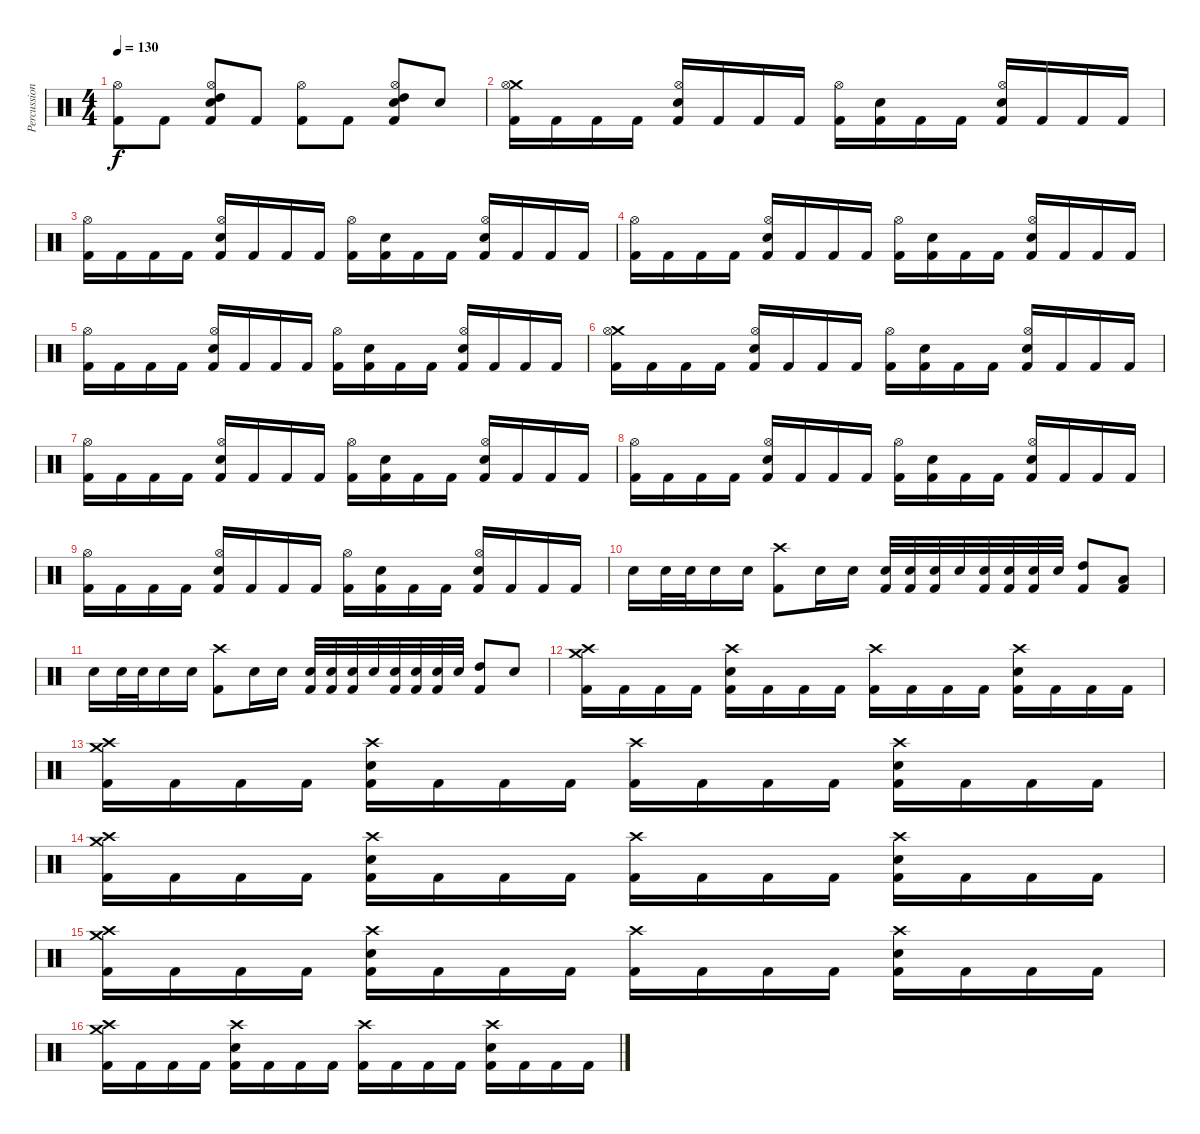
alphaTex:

\track ("Percussion" "Percussion") {instrument percussion}
\staff {score}
\articulation defaults
\ts (4 4)
\tempo 130
\clef neutral
\ks c
("Kick (hit) 2" "Hi-Hat (open)").8{dy f} "Kick (hit) 2".8 ("High Tom (hit)" "Snare (hit) 2" "Kick (hit) 2" "Hi-Hat (open)").8 "Kick (hit) 2".8 ("Kick (hit) 2" "Hi-Hat (open)").8 "Kick (hit) 2".8 ("Snare (hit) 2" "High Tom (hit)" "Kick (hit) 2" "Hi-Hat (open)").8 "Snare (hit)".8 |
("Crash medium (hit)" "Hi-Hat (open)" "Kick (hit) 2").16 "Kick (hit) 2".16 "Kick (hit) 2".16 "Kick (hit) 2".16 ("Snare (hit) 2" "Hi-Hat (open)" "Kick (hit) 2").16 "Kick (hit) 2".16 "Kick (hit) 2".16 "Kick (hit) 2".16 ("Hi-Hat (open)" "Kick (hit) 2").16 ("Snare (hit) 2" "Kick (hit) 2").16 "Kick (hit) 2".16 "Kick (hit) 2".16 ("Snare (hit) 2" "Hi-Hat (open)" "Kick (hit) 2").16 "Kick (hit) 2".16 "Kick (hit) 2".16 "Kick (hit) 2".16 |
("Hi-Hat (open)" "Kick (hit) 2").16 "Kick (hit) 2".16 "Kick (hit) 2".16 "Kick (hit) 2".16 ("Snare (hit) 2" "Hi-Hat (open)" "Kick (hit) 2").16 "Kick (hit) 2".16 "Kick (hit) 2".16 "Kick (hit) 2".16 ("Hi-Hat (open)" "Kick (hit) 2").16 ("Snare (hit) 2" "Kick (hit) 2").16 "Kick (hit) 2".16 "Kick (hit) 2".16 ("Snare (hit) 2" "Hi-Hat (open)" "Kick (hit) 2").16 "Kick (hit) 2".16 "Kick (hit) 2".16 "Kick (hit) 2".16 |
("Hi-Hat (open)" "Kick (hit) 2").16 "Kick (hit) 2".16 "Kick (hit) 2".16 "Kick (hit) 2".16 ("Snare (hit) 2" "Hi-Hat (open)" "Kick (hit) 2").16 "Kick (hit) 2".16 "Kick (hit) 2".16 "Kick (hit) 2".16 ("Hi-Hat (open)" "Kick (hit) 2").16 ("Snare (hit) 2" "Kick (hit) 2").16 "Kick (hit) 2".16 "Kick (hit) 2".16 ("Snare (hit) 2" "Hi-Hat (open)" "Kick (hit) 2").16 "Kick (hit) 2".16 "Kick (hit) 2".16 "Kick (hit) 2".16 |
("Hi-Hat (open)" "Kick (hit) 2").16 "Kick (hit) 2".16 "Kick (hit) 2".16 "Kick (hit) 2".16 ("Snare (hit) 2" "Hi-Hat (open)" "Kick (hit) 2").16 "Kick (hit) 2".16 "Kick (hit) 2".16 "Kick (hit) 2".16 ("Hi-Hat (open)" "Kick (hit) 2").16 ("Snare (hit) 2" "Kick (hit) 2").16 "Kick (hit) 2".16 "Kick (hit) 2".16 ("Snare (hit) 2" "Hi-Hat (open)" "Kick (hit) 2").16 "Kick (hit) 2".16 "Kick (hit) 2".16 "Kick (hit) 2".16 |
("Crash medium (hit)" "Hi-Hat (open)" "Kick (hit) 2").16 "Kick (hit) 2".16 "Kick (hit) 2".16 "Kick (hit) 2".16 ("Snare (hit) 2" "Hi-Hat (open)" "Kick (hit) 2").16 "Kick (hit) 2".16 "Kick (hit) 2".16 "Kick (hit) 2".16 ("Hi-Hat (open)" "Kick (hit) 2").16 ("Snare (hit) 2" "Kick (hit) 2").16 "Kick (hit) 2".16 "Kick (hit) 2".16 ("Snare (hit) 2" "Hi-Hat (open)" "Kick (hit) 2").16 "Kick (hit) 2".16 "Kick (hit) 2".16 "Kick (hit) 2".16 |
("Hi-Hat (open)" "Kick (hit) 2").16 "Kick (hit) 2".16 "Kick (hit) 2".16 "Kick (hit) 2".16 ("Snare (hit) 2" "Hi-Hat (open)" "Kick (hit) 2").16 "Kick (hit) 2".16 "Kick (hit) 2".16 "Kick (hit) 2".16 ("Hi-Hat (open)" "Kick (hit) 2").16 ("Snare (hit) 2" "Kick (hit) 2").16 "Kick (hit) 2".16 "Kick (hit) 2".16 ("Snare (hit) 2" "Hi-Hat (open)" "Kick (hit) 2").16 "Kick (hit) 2".16 "Kick (hit) 2".16 "Kick (hit) 2".16 |
("Hi-Hat (open)" "Kick (hit) 2").16 "Kick (hit) 2".16 "Kick (hit) 2".16 "Kick (hit) 2".16 ("Snare (hit) 2" "Hi-Hat (open)" "Kick (hit) 2").16 "Kick (hit) 2".16 "Kick (hit) 2".16 "Kick (hit) 2".16 ("Hi-Hat (open)" "Kick (hit) 2").16 ("Snare (hit) 2" "Kick (hit) 2").16 "Kick (hit) 2".16 "Kick (hit) 2".16 ("Snare (hit) 2" "Hi-Hat (open)" "Kick (hit) 2").16 "Kick (hit) 2".16 "Kick (hit) 2".16 "Kick (hit) 2".16 |
("Hi-Hat (open)" "Kick (hit) 2").16 "Kick (hit) 2".16 "Kick (hit) 2".16 "Kick (hit) 2".16 ("Snare (hit) 2" "Hi-Hat (open)" "Kick (hit) 2").16 "Kick (hit) 2".16 "Kick (hit) 2".16 "Kick (hit) 2".16 ("Hi-Hat (open)" "Kick (hit) 2").16 ("Snare (hit) 2" "Kick (hit) 2").16 "Kick (hit) 2".16 "Kick (hit) 2".16 ("Snare (hit) 2" "Hi-Hat (open)" "Kick (hit) 2").16 "Kick (hit) 2".16 "Kick (hit) 2".16 "Kick (hit) 2".16 |
"Snare (hit) 2".16 "Snare (hit) 2".32 "Snare (hit) 2".32 "Snare (hit) 2".16 "Snare (hit) 2".16 ("Crash high (hit)" "Kick (hit) 2").8 "Snare (hit) 2".16 "Snare (hit) 2".16 ("Snare (hit) 2" "Kick (hit) 2").32 ("Snare (hit) 2" "Kick (hit) 2").32 ("Snare (hit) 2" "Kick (hit) 2").32 "Snare (hit)".32 ("Snare (hit) 2" "Kick (hit) 2").32 ("Snare (hit) 2" "Kick (hit) 2").32 ("Snare (hit) 2" "Kick (hit) 2").32 "Snare (hit)".32 ("High Tom (hit)" "Kick (hit) 2").8 ("Low Tom (hit)" "Kick (hit) 2").8 |
"Snare (hit) 2".16 "Snare (hit) 2".32 "Snare (hit) 2".32 "Snare (hit) 2".16 "Snare (hit) 2".16 ("Crash high (hit)" "Kick (hit) 2").8 "Snare (hit) 2".16 "Snare (hit) 2".16 ("Snare (hit) 2" "Kick (hit) 2").32 ("Snare (hit) 2" "Kick (hit) 2").32 ("Snare (hit) 2" "Kick (hit) 2").32 "Snare (hit)".32 ("Snare (hit) 2" "Kick (hit) 2").32 ("Snare (hit) 2" "Kick (hit) 2").32 ("Snare (hit) 2" "Kick (hit) 2").32 "Snare (hit)".32 ("High Tom (hit)" "Kick (hit) 2").8 "Snare (hit)".8 |
("Crash medium (hit)" "Crash high (hit)" "Kick (hit) 2").16 "Kick (hit) 2".16 "Kick (hit) 2".16 "Kick (hit) 2".16 ("Crash high (hit)" "Snare (hit) 2" "Kick (hit) 2").16 "Kick (hit) 2".16 "Kick (hit) 2".16 "Kick (hit) 2".16 ("Crash high (hit)" "Kick (hit) 2").16 "Kick (hit) 2".16 "Kick (hit) 2".16 "Kick (hit) 2".16 ("Crash high (hit)" "Snare (hit) 2" "Kick (hit) 2").16 "Kick (hit) 2".16 "Kick (hit) 2".16 "Kick (hit) 2".16 |
("Crash high (hit)" "Crash medium (hit)" "Kick (hit) 2").16 "Kick (hit) 2".16 "Kick (hit) 2".16 "Kick (hit) 2".16 ("Crash high (hit)" "Snare (hit) 2" "Kick (hit) 2").16 "Kick (hit) 2".16 "Kick (hit) 2".16 "Kick (hit) 2".16 ("Crash high (hit)" "Kick (hit) 2").16 "Kick (hit) 2".16 "Kick (hit) 2".16 "Kick (hit) 2".16 ("Crash high (hit)" "Snare (hit) 2" "Kick (hit) 2").16 "Kick (hit) 2".16 "Kick (hit) 2".16 "Kick (hit) 2".16 |
("Crash medium (hit)" "Crash high (hit)" "Kick (hit) 2").16 "Kick (hit) 2".16 "Kick (hit) 2".16 "Kick (hit) 2".16 ("Crash high (hit)" "Snare (hit) 2" "Kick (hit) 2").16 "Kick (hit) 2".16 "Kick (hit) 2".16 "Kick (hit) 2".16 ("Crash high (hit)" "Kick (hit) 2").16 "Kick (hit) 2".16 "Kick (hit) 2".16 "Kick (hit) 2".16 ("Crash high (hit)" "Snare (hit) 2" "Kick (hit) 2").16 "Kick (hit) 2".16 "Kick (hit) 2".16 "Kick (hit) 2".16 |
("Crash high (hit)" "Crash medium (hit)" "Kick (hit) 2").16 "Kick (hit) 2".16 "Kick (hit) 2".16 "Kick (hit) 2".16 ("Crash high (hit)" "Snare (hit) 2" "Kick (hit) 2").16 "Kick (hit) 2".16 "Kick (hit) 2".16 "Kick (hit) 2".16 ("Crash high (hit)" "Kick (hit) 2").16 "Kick (hit) 2".16 "Kick (hit) 2".16 "Kick (hit) 2".16 ("Crash high (hit)" "Snare (hit) 2" "Kick (hit) 2").16 "Kick (hit) 2".16 "Kick (hit) 2".16 "Kick (hit) 2".16 |
("Crash medium (hit)" "Crash high (hit)" "Kick (hit) 2").16 "Kick (hit) 2".16 "Kick (hit) 2".16 "Kick (hit) 2".16 ("Crash high (hit)" "Snare (hit) 2" "Kick (hit) 2").16 "Kick (hit) 2".16 "Kick (hit) 2".16 "Kick (hit) 2".16 ("Crash high (hit)" "Kick (hit) 2").16 "Kick (hit) 2".16 "Kick (hit) 2".16 "Kick (hit) 2".16 ("Crash high (hit)" "Snare (hit) 2" "Kick (hit) 2").16 "Kick (hit) 2".16 "Kick (hit) 2".16 "Kick (hit) 2".16
